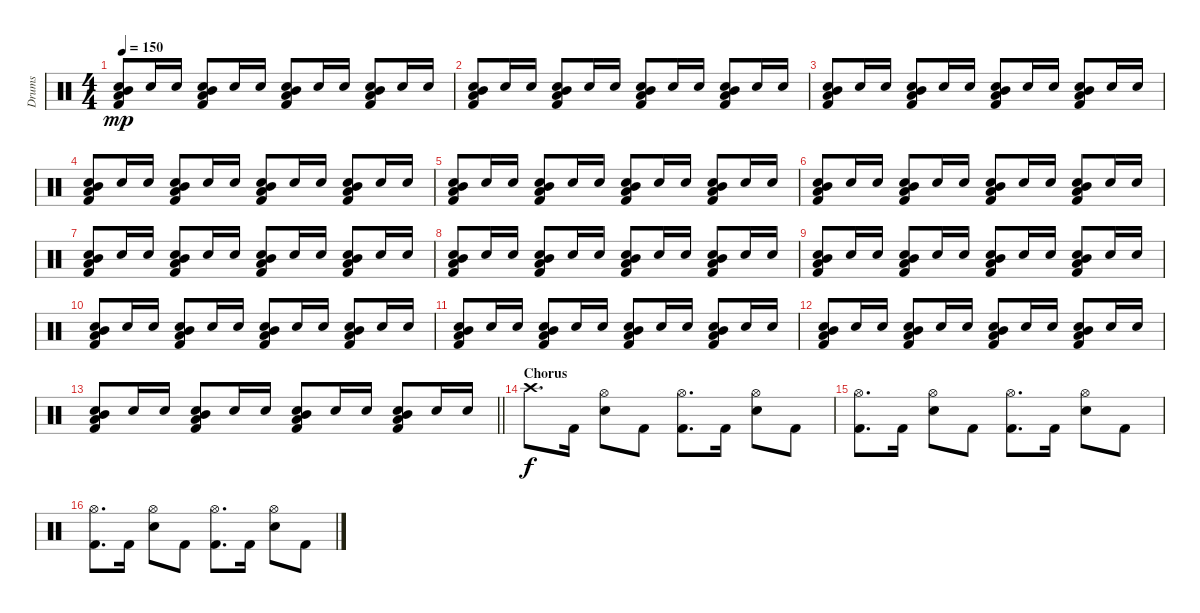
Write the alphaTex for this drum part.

\track ("Drums" "Drums") {instrument percussion}
\staff {score}
\articulation defaults
\ts (4 4)
\tempo 150
\clef neutral
\ks c
("Kick (hit) 2" "Low Tom (hit)" "Mid Tom (hit)" "Snare (hit) 2").8{dy mp} "Snare (hit) 2".16 "Snare (hit) 2".16 ("Kick (hit) 2" "Low Tom (hit)" "Mid Tom (hit)" "Snare (hit) 2").8 "Snare (hit) 2".16 "Snare (hit) 2".16 ("Kick (hit) 2" "Low Tom (hit)" "Mid Tom (hit)" "Snare (hit) 2").8 "Snare (hit) 2".16 "Snare (hit) 2".16 ("Kick (hit) 2" "Low Tom (hit)" "Mid Tom (hit)" "Snare (hit) 2").8 "Snare (hit) 2".16 "Snare (hit) 2".16 |
("Kick (hit) 2" "Low Tom (hit)" "Mid Tom (hit)" "Snare (hit) 2").8 "Snare (hit) 2".16 "Snare (hit) 2".16 ("Kick (hit) 2" "Low Tom (hit)" "Mid Tom (hit)" "Snare (hit) 2").8 "Snare (hit) 2".16 "Snare (hit) 2".16 ("Kick (hit) 2" "Low Tom (hit)" "Mid Tom (hit)" "Snare (hit) 2").8 "Snare (hit) 2".16 "Snare (hit) 2".16 ("Kick (hit) 2" "Low Tom (hit)" "Mid Tom (hit)" "Snare (hit) 2").8 "Snare (hit) 2".16 "Snare (hit) 2".16 |
("Kick (hit) 2" "Low Tom (hit)" "Mid Tom (hit)" "Snare (hit) 2").8 "Snare (hit) 2".16 "Snare (hit) 2".16 ("Kick (hit) 2" "Low Tom (hit)" "Mid Tom (hit)" "Snare (hit) 2").8 "Snare (hit) 2".16 "Snare (hit) 2".16 ("Kick (hit) 2" "Low Tom (hit)" "Mid Tom (hit)" "Snare (hit) 2").8 "Snare (hit) 2".16 "Snare (hit) 2".16 ("Kick (hit) 2" "Low Tom (hit)" "Mid Tom (hit)" "Snare (hit) 2").8 "Snare (hit) 2".16 "Snare (hit) 2".16 |
("Kick (hit) 2" "Low Tom (hit)" "Mid Tom (hit)" "Snare (hit) 2").8 "Snare (hit) 2".16 "Snare (hit) 2".16 ("Kick (hit) 2" "Low Tom (hit)" "Mid Tom (hit)" "Snare (hit) 2").8 "Snare (hit) 2".16 "Snare (hit) 2".16 ("Kick (hit) 2" "Low Tom (hit)" "Mid Tom (hit)" "Snare (hit) 2").8 "Snare (hit) 2".16 "Snare (hit) 2".16 ("Kick (hit) 2" "Low Tom (hit)" "Mid Tom (hit)" "Snare (hit) 2").8 "Snare (hit) 2".16 "Snare (hit) 2".16 |
("Kick (hit) 2" "Low Tom (hit)" "Mid Tom (hit)" "Snare (hit) 2").8 "Snare (hit) 2".16 "Snare (hit) 2".16 ("Kick (hit) 2" "Low Tom (hit)" "Mid Tom (hit)" "Snare (hit) 2").8 "Snare (hit) 2".16 "Snare (hit) 2".16 ("Kick (hit) 2" "Low Tom (hit)" "Mid Tom (hit)" "Snare (hit) 2").8 "Snare (hit) 2".16 "Snare (hit) 2".16 ("Kick (hit) 2" "Low Tom (hit)" "Mid Tom (hit)" "Snare (hit) 2").8 "Snare (hit) 2".16 "Snare (hit) 2".16 |
("Kick (hit) 2" "Low Tom (hit)" "Mid Tom (hit)" "Snare (hit) 2").8 "Snare (hit) 2".16 "Snare (hit) 2".16 ("Kick (hit) 2" "Low Tom (hit)" "Mid Tom (hit)" "Snare (hit) 2").8 "Snare (hit) 2".16 "Snare (hit) 2".16 ("Kick (hit) 2" "Low Tom (hit)" "Mid Tom (hit)" "Snare (hit) 2").8 "Snare (hit) 2".16 "Snare (hit) 2".16 ("Kick (hit) 2" "Low Tom (hit)" "Mid Tom (hit)" "Snare (hit) 2").8 "Snare (hit) 2".16 "Snare (hit) 2".16 |
("Kick (hit) 2" "Low Tom (hit)" "Mid Tom (hit)" "Snare (hit) 2").8 "Snare (hit) 2".16 "Snare (hit) 2".16 ("Kick (hit) 2" "Low Tom (hit)" "Mid Tom (hit)" "Snare (hit) 2").8 "Snare (hit) 2".16 "Snare (hit) 2".16 ("Kick (hit) 2" "Low Tom (hit)" "Mid Tom (hit)" "Snare (hit) 2").8 "Snare (hit) 2".16 "Snare (hit) 2".16 ("Kick (hit) 2" "Low Tom (hit)" "Mid Tom (hit)" "Snare (hit) 2").8 "Snare (hit) 2".16 "Snare (hit) 2".16 |
("Kick (hit) 2" "Low Tom (hit)" "Mid Tom (hit)" "Snare (hit) 2").8 "Snare (hit) 2".16 "Snare (hit) 2".16 ("Kick (hit) 2" "Low Tom (hit)" "Mid Tom (hit)" "Snare (hit) 2").8 "Snare (hit) 2".16 "Snare (hit) 2".16 ("Kick (hit) 2" "Low Tom (hit)" "Mid Tom (hit)" "Snare (hit) 2").8 "Snare (hit) 2".16 "Snare (hit) 2".16 ("Kick (hit) 2" "Low Tom (hit)" "Mid Tom (hit)" "Snare (hit) 2").8 "Snare (hit) 2".16 "Snare (hit) 2".16 |
("Kick (hit) 2" "Low Tom (hit)" "Mid Tom (hit)" "Snare (hit) 2").8 "Snare (hit) 2".16 "Snare (hit) 2".16 ("Kick (hit) 2" "Low Tom (hit)" "Mid Tom (hit)" "Snare (hit) 2").8 "Snare (hit) 2".16 "Snare (hit) 2".16 ("Kick (hit) 2" "Low Tom (hit)" "Mid Tom (hit)" "Snare (hit) 2").8 "Snare (hit) 2".16 "Snare (hit) 2".16 ("Kick (hit) 2" "Low Tom (hit)" "Mid Tom (hit)" "Snare (hit) 2").8 "Snare (hit) 2".16 "Snare (hit) 2".16 |
("Kick (hit) 2" "Low Tom (hit)" "Mid Tom (hit)" "Snare (hit) 2").8 "Snare (hit) 2".16 "Snare (hit) 2".16 ("Kick (hit) 2" "Low Tom (hit)" "Mid Tom (hit)" "Snare (hit) 2").8 "Snare (hit) 2".16 "Snare (hit) 2".16 ("Kick (hit) 2" "Low Tom (hit)" "Mid Tom (hit)" "Snare (hit) 2").8 "Snare (hit) 2".16 "Snare (hit) 2".16 ("Kick (hit) 2" "Low Tom (hit)" "Mid Tom (hit)" "Snare (hit) 2").8 "Snare (hit) 2".16 "Snare (hit) 2".16 |
("Kick (hit) 2" "Low Tom (hit)" "Mid Tom (hit)" "Snare (hit) 2").8 "Snare (hit) 2".16 "Snare (hit) 2".16 ("Kick (hit) 2" "Low Tom (hit)" "Mid Tom (hit)" "Snare (hit) 2").8 "Snare (hit) 2".16 "Snare (hit) 2".16 ("Kick (hit) 2" "Low Tom (hit)" "Mid Tom (hit)" "Snare (hit) 2").8 "Snare (hit) 2".16 "Snare (hit) 2".16 ("Kick (hit) 2" "Low Tom (hit)" "Mid Tom (hit)" "Snare (hit) 2").8 "Snare (hit) 2".16 "Snare (hit) 2".16 |
("Kick (hit) 2" "Low Tom (hit)" "Mid Tom (hit)" "Snare (hit) 2").8 "Snare (hit) 2".16 "Snare (hit) 2".16 ("Kick (hit) 2" "Low Tom (hit)" "Mid Tom (hit)" "Snare (hit) 2").8 "Snare (hit) 2".16 "Snare (hit) 2".16 ("Kick (hit) 2" "Low Tom (hit)" "Mid Tom (hit)" "Snare (hit) 2").8 "Snare (hit) 2".16 "Snare (hit) 2".16 ("Kick (hit) 2" "Low Tom (hit)" "Mid Tom (hit)" "Snare (hit) 2").8 "Snare (hit) 2".16 "Snare (hit) 2".16 |
\barLineRight lightlight
("Kick (hit) 2" "Low Tom (hit)" "Mid Tom (hit)" "Snare (hit) 2").8 "Snare (hit) 2".16 "Snare (hit) 2".16 ("Kick (hit) 2" "Low Tom (hit)" "Mid Tom (hit)" "Snare (hit) 2").8 "Snare (hit) 2".16 "Snare (hit) 2".16 ("Kick (hit) 2" "Low Tom (hit)" "Mid Tom (hit)" "Snare (hit) 2").8 "Snare (hit) 2".16 "Snare (hit) 2".16 ("Kick (hit) 2" "Low Tom (hit)" "Mid Tom (hit)" "Snare (hit) 2").8 "Snare (hit) 2".16 "Snare (hit) 2".16 |
\section ("" "Chorus")
"Crash high (hit)".8{d dy f} "Kick (hit) 2".16 ("Snare (hit) 2" "Hi-Hat (open)").8 "Kick (hit) 2".8 ("Kick (hit) 2" "Hi-Hat (open)").8{d} "Kick (hit) 2".16 ("Snare (hit) 2" "Hi-Hat (open)").8 "Kick (hit) 2".8 |
("Kick (hit) 2" "Hi-Hat (open)").8{d} "Kick (hit) 2".16 ("Snare (hit) 2" "Hi-Hat (open)").8 "Kick (hit) 2".8 ("Kick (hit) 2" "Hi-Hat (open)").8{d} "Kick (hit) 2".16 ("Snare (hit) 2" "Hi-Hat (open)").8 "Kick (hit) 2".8 |
("Kick (hit) 2" "Hi-Hat (open)").8{d} "Kick (hit) 2".16 ("Snare (hit) 2" "Hi-Hat (open)").8 "Kick (hit) 2".8 ("Kick (hit) 2" "Hi-Hat (open)").8{d} "Kick (hit) 2".16 ("Snare (hit) 2" "Hi-Hat (open)").8 "Kick (hit) 2".8
